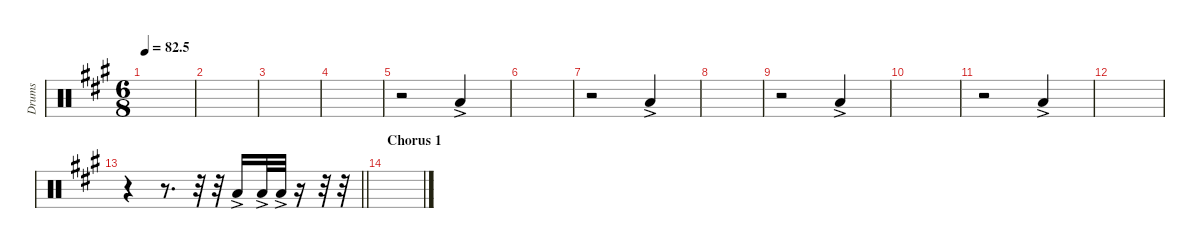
\defaultSystemsLayout 4
\hideDynamics
\bracketExtendMode nobrackets
\otherSystemsTrackNameOrientation horizontal
\track ("Tom 03" "Drums") {instrument percussion}
\staff {score}
\articulation defaults
\ts (6 8)
\tempo
82.5
\accidentals auto
\clef neutral
\ottava regular
\simile none
\scale
0.333333
\ks a
|
\scale
0.333333 |
\scale
0.333333 |
\scale
0.333333 |
\scale
0.333333 r.2 "Low Tom (hit)"{ac acc forcenatural}.4 |
\scale
0.333333 |
\scale
0.333333 r.2 "Low Tom (hit)"{ac acc forcenatural}.4 |
\scale
0.333333 |
\scale
0.333333 r.2 "Low Tom (hit)"{ac acc forcenatural}.4 |
\scale
0.333333 |
\scale
0.333333 r.2 "Low Tom (hit)"{ac acc forcenatural}.4 |
\scale
0.333333 |
\scale
0.333333
\barLineRight lightlight
r.4 r.8{d} r.32 r.32 "Low Tom (hit)"{ac acc forcenatural}.16 "Low Tom (hit)"{ac acc forcenatural}.32 "Low Tom (hit)"{ac acc forcenatural}.32 r.16 r.32 r.32 |
\section ("" "Chorus 1")
\scale
0.333333 |
\scale
0.333333 |
\scale
0.333333
